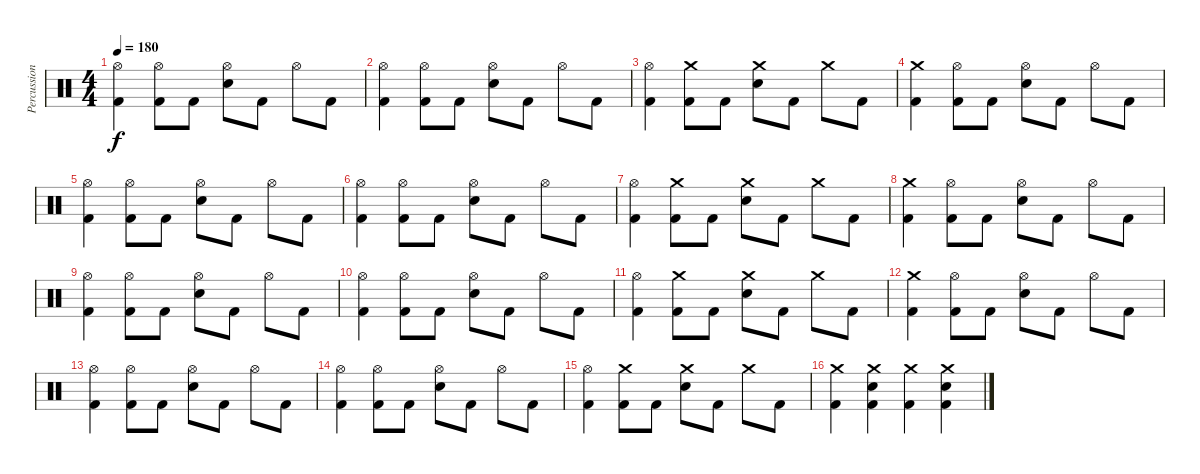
\track ("Percussion" "Percussion") {instrument percussion}
\staff {score}
\articulation defaults
\ts (4 4)
\tempo 180
\clef neutral
\ks c
("Hi-Hat (open)" "Kick (hit) 2").4{dy f} ("Hi-Hat (open)" "Kick (hit) 2").8 "Kick (hit) 2".8 ("Hi-Hat (open)" "Electric Snare (hit)").8 "Kick (hit) 2".8 "Hi-Hat (open)".8 "Kick (hit) 2".8 |
("Hi-Hat (open)" "Kick (hit) 2").4 ("Hi-Hat (open)" "Kick (hit) 2").8 "Kick (hit) 2".8 ("Hi-Hat (open)" "Electric Snare (hit)").8 "Kick (hit) 2".8 "Hi-Hat (open)".8 "Kick (hit) 2".8 |
("Hi-Hat (open)" "Kick (hit) 2").4 ("Crash medium (hit)" "Kick (hit) 2").8 "Kick (hit) 2".8 ("Crash medium (hit)" "Electric Snare (hit)").8 "Kick (hit) 2".8 "Crash medium (hit)".8 "Kick (hit) 2".8 |
("Crash medium (hit)" "Kick (hit) 2").4 ("Hi-Hat (open)" "Kick (hit) 2").8 "Kick (hit) 2".8 ("Hi-Hat (open)" "Electric Snare (hit)").8 "Kick (hit) 2".8 "Hi-Hat (open)".8 "Kick (hit) 2".8 |
("Hi-Hat (open)" "Kick (hit) 2").4 ("Hi-Hat (open)" "Kick (hit) 2").8 "Kick (hit) 2".8 ("Hi-Hat (open)" "Electric Snare (hit)").8 "Kick (hit) 2".8 "Hi-Hat (open)".8 "Kick (hit) 2".8 |
("Hi-Hat (open)" "Kick (hit) 2").4 ("Hi-Hat (open)" "Kick (hit) 2").8 "Kick (hit) 2".8 ("Hi-Hat (open)" "Electric Snare (hit)").8 "Kick (hit) 2".8 "Hi-Hat (open)".8 "Kick (hit) 2".8 |
("Hi-Hat (open)" "Kick (hit) 2").4 ("Crash medium (hit)" "Kick (hit) 2").8 "Kick (hit) 2".8 ("Crash medium (hit)" "Electric Snare (hit)").8 "Kick (hit) 2".8 "Crash medium (hit)".8 "Kick (hit) 2".8 |
("Crash medium (hit)" "Kick (hit) 2").4 ("Hi-Hat (open)" "Kick (hit) 2").8 "Kick (hit) 2".8 ("Hi-Hat (open)" "Electric Snare (hit)").8 "Kick (hit) 2".8 "Hi-Hat (open)".8 "Kick (hit) 2".8 |
("Hi-Hat (open)" "Kick (hit) 2").4 ("Hi-Hat (open)" "Kick (hit) 2").8 "Kick (hit) 2".8 ("Hi-Hat (open)" "Electric Snare (hit)").8 "Kick (hit) 2".8 "Hi-Hat (open)".8 "Kick (hit) 2".8 |
("Hi-Hat (open)" "Kick (hit) 2").4 ("Hi-Hat (open)" "Kick (hit) 2").8 "Kick (hit) 2".8 ("Hi-Hat (open)" "Electric Snare (hit)").8 "Kick (hit) 2".8 "Hi-Hat (open)".8 "Kick (hit) 2".8 |
("Hi-Hat (open)" "Kick (hit) 2").4 ("Crash medium (hit)" "Kick (hit) 2").8 "Kick (hit) 2".8 ("Crash medium (hit)" "Electric Snare (hit)").8 "Kick (hit) 2".8 "Crash medium (hit)".8 "Kick (hit) 2".8 |
("Crash medium (hit)" "Kick (hit) 2").4 ("Hi-Hat (open)" "Kick (hit) 2").8 "Kick (hit) 2".8 ("Hi-Hat (open)" "Electric Snare (hit)").8 "Kick (hit) 2".8 "Hi-Hat (open)".8 "Kick (hit) 2".8 |
("Hi-Hat (open)" "Kick (hit) 2").4 ("Hi-Hat (open)" "Kick (hit) 2").8 "Kick (hit) 2".8 ("Hi-Hat (open)" "Electric Snare (hit)").8 "Kick (hit) 2".8 "Hi-Hat (open)".8 "Kick (hit) 2".8 |
("Hi-Hat (open)" "Kick (hit) 2").4 ("Hi-Hat (open)" "Kick (hit) 2").8 "Kick (hit) 2".8 ("Hi-Hat (open)" "Electric Snare (hit)").8 "Kick (hit) 2".8 "Hi-Hat (open)".8 "Kick (hit) 2".8 |
("Hi-Hat (open)" "Kick (hit) 2").4 ("Crash medium (hit)" "Kick (hit) 2").8 "Kick (hit) 2".8 ("Crash medium (hit)" "Electric Snare (hit)").8 "Kick (hit) 2".8 "Crash medium (hit)".8 "Kick (hit) 2".8 |
("Crash medium (hit)" "Kick (hit) 2").4 ("Crash medium (hit)" "Electric Snare (hit)" "Kick (hit) 2").4 ("Crash medium (hit)" "Kick (hit) 2").4 ("Crash medium (hit)" "Electric Snare (hit)" "Kick (hit) 2").4
